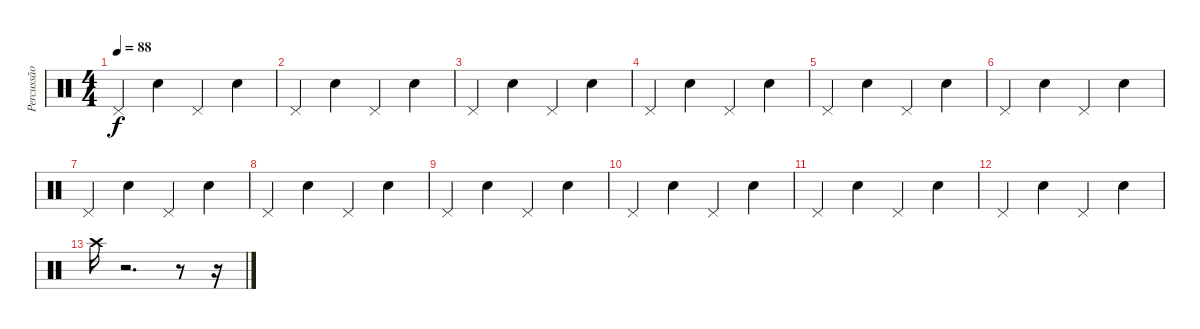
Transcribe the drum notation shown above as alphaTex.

\track ("Percussão" "Percussão") {instrument percussion}
\staff {score}
\articulation defaults
\ts (4 4)
\tempo 88
\clef neutral
\ks c "Pedal Hi-Hat (hit)".4{dy f} "Electric Snare (hit)".4 "Pedal Hi-Hat (hit)".4 "Electric Snare (hit)".4
|
"Pedal Hi-Hat (hit)".4 "Electric Snare (hit)".4 "Pedal Hi-Hat (hit)".4 "Electric Snare (hit)".4 |
"Pedal Hi-Hat (hit)".4 "Electric Snare (hit)".4 "Pedal Hi-Hat (hit)".4 "Electric Snare (hit)".4 |
"Pedal Hi-Hat (hit)".4 "Electric Snare (hit)".4 "Pedal Hi-Hat (hit)".4 "Electric Snare (hit)".4 |
"Pedal Hi-Hat (hit)".4 "Electric Snare (hit)".4 "Pedal Hi-Hat (hit)".4 "Electric Snare (hit)".4 |
"Pedal Hi-Hat (hit)".4 "Electric Snare (hit)".4 "Pedal Hi-Hat (hit)".4 "Electric Snare (hit)".4 |
"Pedal Hi-Hat (hit)".4 "Electric Snare (hit)".4 "Pedal Hi-Hat (hit)".4 "Electric Snare (hit)".4 |
"Pedal Hi-Hat (hit)".4 "Electric Snare (hit)".4 "Pedal Hi-Hat (hit)".4 "Electric Snare (hit)".4 |
"Pedal Hi-Hat (hit)".4 "Electric Snare (hit)".4 "Pedal Hi-Hat (hit)".4 "Electric Snare (hit)".4 |
"Pedal Hi-Hat (hit)".4 "Electric Snare (hit)".4 "Pedal Hi-Hat (hit)".4 "Electric Snare (hit)".4 |
"Pedal Hi-Hat (hit)".4 "Electric Snare (hit)".4 "Pedal Hi-Hat (hit)".4 "Electric Snare (hit)".4 |
"Pedal Hi-Hat (hit)".4 "Electric Snare (hit)".4 "Pedal Hi-Hat (hit)".4 "Electric Snare (hit)".4 |
"Crash high (hit)".16 r.2{d} r.8 r.16
